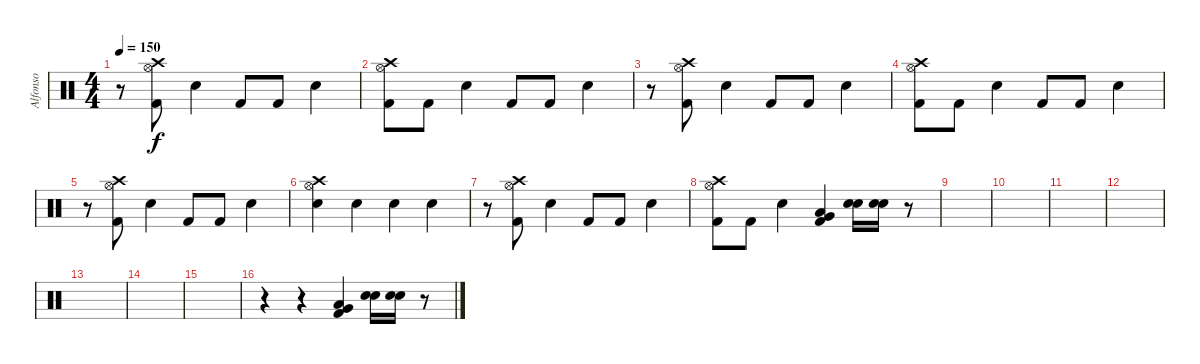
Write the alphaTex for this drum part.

\track ("Alfonso" "Alfonso") {instrument percussion}
\staff {score}
\articulation defaults
\ts (4 4)
\tempo 150
\clef neutral
\ks c
r.8{dy f} ("Crash high (hit)" "Hi-Hat (open)" "Kick (hit) 2").8 "Electric Snare (hit)".4 "Kick (hit) 2".8 "Kick (hit) 2".8 "Electric Snare (hit)".4 |
("Crash high (hit)" "Hi-Hat (open)" "Kick (hit) 2").8 "Kick (hit) 2".8 "Electric Snare (hit)".4 "Kick (hit) 2".8 "Kick (hit) 2".8 "Electric Snare (hit)".4 |
r.8 ("Crash high (hit)" "Hi-Hat (open)" "Kick (hit) 2").8 "Electric Snare (hit)".4 "Kick (hit) 2".8 "Kick (hit) 2".8 "Electric Snare (hit)".4 |
("Crash high (hit)" "Hi-Hat (open)" "Kick (hit) 2").8 "Kick (hit) 2".8 "Electric Snare (hit)".4 "Kick (hit) 2".8 "Kick (hit) 2".8 "Electric Snare (hit)".4 |
r.8 ("Crash high (hit)" "Hi-Hat (open)" "Kick (hit) 2").8 "Electric Snare (hit)".4 "Kick (hit) 2".8 "Kick (hit) 2".8 "Electric Snare (hit)".4 |
("Crash high (hit)" "Hi-Hat (open)" "Electric Snare (hit)").4 "Electric Snare (hit)".4 "Electric Snare (hit)".4 "Electric Snare (hit)".4 |
r.8 ("Crash high (hit)" "Hi-Hat (open)" "Kick (hit) 2").8 "Electric Snare (hit)".4 "Kick (hit) 2".8 "Kick (hit) 2".8 "Electric Snare (hit)".4 |
("Crash high (hit)" "Hi-Hat (open)" "Kick (hit) 2").8 "Kick (hit) 2".8 "Electric Snare (hit)".4 ("Kick (hit) 2" "Very Low Tom (hit)" "Low Floor Tom (hit)").4 ("Snare (hit) 2" "Electric Snare (hit)").16 ("Snare (hit) 2" "Electric Snare (hit)").16 r.8 |
|
|
|
|
|
|
|
r.4 r.4 ("Kick (hit) 2" "Very Low Tom (hit)" "Low Floor Tom (hit)").4 ("Snare (hit) 2" "Electric Snare (hit)").16 ("Snare (hit) 2" "Electric Snare (hit)").16 r.8
